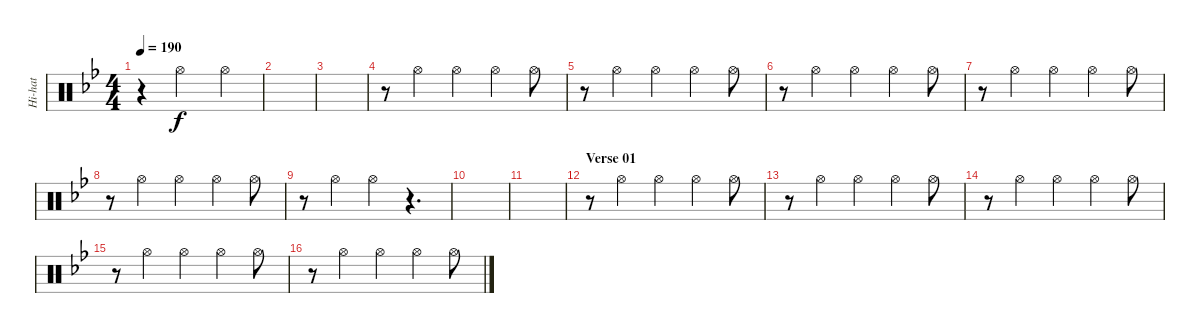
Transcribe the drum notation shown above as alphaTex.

\track ("Hi-hat" "Hi-hat") {instrument percussion}
\staff {score}
\articulation defaults
\ts (4 4)
\tempo 190
\clef neutral
\ks bb
r.4{dy f} "Hi-Hat (open)".2 "Hi-Hat (open)".4 |
|
|
r.8 "Hi-Hat (open)".4 "Hi-Hat (open)".4 "Hi-Hat (open)".4 "Hi-Hat (open)".8 |
r.8 "Hi-Hat (open)".4 "Hi-Hat (open)".4 "Hi-Hat (open)".4 "Hi-Hat (open)".8 |
r.8 "Hi-Hat (open)".4 "Hi-Hat (open)".4 "Hi-Hat (open)".4 "Hi-Hat (open)".8 |
r.8 "Hi-Hat (open)".4 "Hi-Hat (open)".4 "Hi-Hat (open)".4 "Hi-Hat (open)".8 |
r.8 "Hi-Hat (open)".4 "Hi-Hat (open)".4 "Hi-Hat (open)".4 "Hi-Hat (open)".8 |
r.8 "Hi-Hat (open)".4 "Hi-Hat (open)".4 r.4{d} |
|
|
\section ("" "Verse 01")
r.8 "Hi-Hat (open)".4 "Hi-Hat (open)".4 "Hi-Hat (open)".4 "Hi-Hat (open)".8 |
r.8 "Hi-Hat (open)".4 "Hi-Hat (open)".4 "Hi-Hat (open)".4 "Hi-Hat (open)".8 |
r.8 "Hi-Hat (open)".4 "Hi-Hat (open)".4 "Hi-Hat (open)".4 "Hi-Hat (open)".8 |
r.8 "Hi-Hat (open)".4 "Hi-Hat (open)".4 "Hi-Hat (open)".4 "Hi-Hat (open)".8 |
r.8 "Hi-Hat (open)".4 "Hi-Hat (open)".4 "Hi-Hat (open)".4 "Hi-Hat (open)".8
